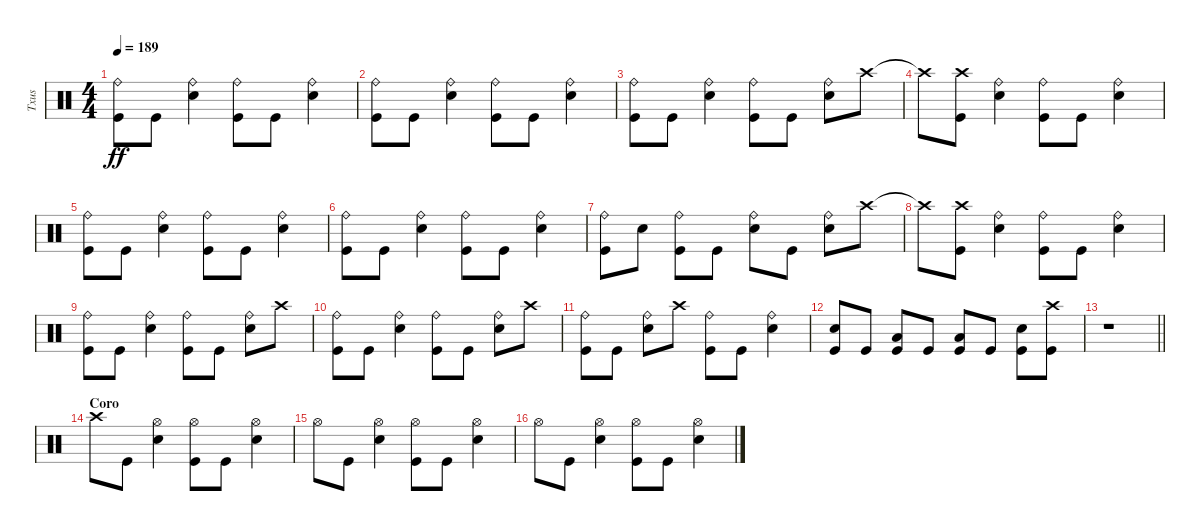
\track ("Txus" "Txus") {instrument percussion}
\staff {score}
\articulation defaults
\ts (4 4)
\tempo 189
\clef neutral
\ks c
("Kick (hit)" "Ride (bell)").8{dy ff} "Kick (hit)".8 ("Ride (bell)" "Snare (hit) 2").4 ("Ride (bell)" "Kick (hit)").8 "Kick (hit)".8 ("Ride (bell)" "Snare (hit) 2").4 |
("Kick (hit)" "Ride (bell)").8 "Kick (hit)".8 ("Ride (bell)" "Snare (hit) 2").4 ("Ride (bell)" "Kick (hit)").8 "Kick (hit)".8 ("Ride (bell)" "Snare (hit) 2").4 |
("Kick (hit)" "Ride (bell)").8 "Kick (hit)".8 ("Ride (bell)" "Snare (hit) 2").4 ("Ride (bell)" "Kick (hit)").8 "Kick (hit)".8 ("Ride (bell)" "Snare (hit) 2").8 "Crash high (hit)".8 |
"Crash high (hit)"{t}.8 ("Kick (hit)" "Crash high (hit)").8 ("Ride (bell)" "Snare (hit) 2").4 ("Ride (bell)" "Kick (hit)").8 "Kick (hit)".8 ("Ride (bell)" "Snare (hit) 2").4 |
("Kick (hit)" "Ride (bell)").8 "Kick (hit)".8 ("Ride (bell)" "Snare (hit) 2").4 ("Ride (bell)" "Kick (hit)").8 "Kick (hit)".8 ("Ride (bell)" "Snare (hit) 2").4 |
("Kick (hit)" "Ride (bell)").8 "Kick (hit)".8 ("Ride (bell)" "Snare (hit) 2").4 ("Ride (bell)" "Kick (hit)").8 "Kick (hit)".8 ("Ride (bell)" "Snare (hit) 2").4 |
("Kick (hit)" "Ride (bell)").8 "Snare (hit) 2".8 ("Ride (bell)" "Kick (hit)").8 "Kick (hit)".8 ("Ride (bell)" "Snare (hit) 2").8 "Kick (hit)".8 ("Ride (bell)" "Snare (hit) 2").8 "Crash high (hit)".8 |
"Crash high (hit)"{t}.8 ("Kick (hit)" "Crash high (hit)").8 ("Ride (bell)" "Snare (hit) 2").4 ("Ride (bell)" "Kick (hit)").8 "Kick (hit)".8 ("Ride (bell)" "Snare (hit) 2").4 |
("Kick (hit)" "Ride (bell)").8 "Kick (hit)".8 ("Ride (bell)" "Snare (hit) 2").4 ("Ride (bell)" "Kick (hit)").8 "Kick (hit)".8 ("Ride (bell)" "Snare (hit) 2").8 "Crash high (hit)".8 |
("Kick (hit)" "Ride (bell)").8 "Kick (hit)".8 ("Ride (bell)" "Snare (hit) 2").4 ("Ride (bell)" "Kick (hit)").8 "Kick (hit)".8 ("Ride (bell)" "Snare (hit) 2").8 "Crash high (hit)".8 |
("Kick (hit)" "Ride (bell)").8 "Kick (hit)".8 ("Ride (bell)" "Snare (hit) 2").8 "Crash high (hit)".8 ("Ride (bell)" "Kick (hit)").8 "Kick (hit)".8 ("Ride (bell)" "Snare (hit) 2").4 |
("Snare (hit) 2" "Kick (hit)").8 "Kick (hit)".8 ("Kick (hit)" "Low Tom (hit)").8 "Kick (hit)".8 ("Kick (hit)" "Low Tom (hit)").8 "Kick (hit)".8 ("Kick (hit)" "Snare (hit) 2").8 ("Kick (hit)" "Crash high (hit)").8 |
\barLineRight lightlight
r.1 |
\section ("" "Coro")
"Crash high (hit)".8 "Kick (hit)".8 ("Snare (hit) 2" "Hi-Hat (open)").4 ("Kick (hit)" "Hi-Hat (open)").8 "Kick (hit)".8 ("Snare (hit) 2" "Hi-Hat (open)").4 |
"Hi-Hat (open)".8 "Kick (hit)".8 ("Snare (hit) 2" "Hi-Hat (open)").4 ("Kick (hit)" "Hi-Hat (open)").8 "Kick (hit)".8 ("Snare (hit) 2" "Hi-Hat (open)").4 |
"Hi-Hat (open)".8 "Kick (hit)".8 ("Snare (hit) 2" "Hi-Hat (open)").4 ("Kick (hit)" "Hi-Hat (open)").8 "Kick (hit)".8 ("Snare (hit) 2" "Hi-Hat (open)").4
